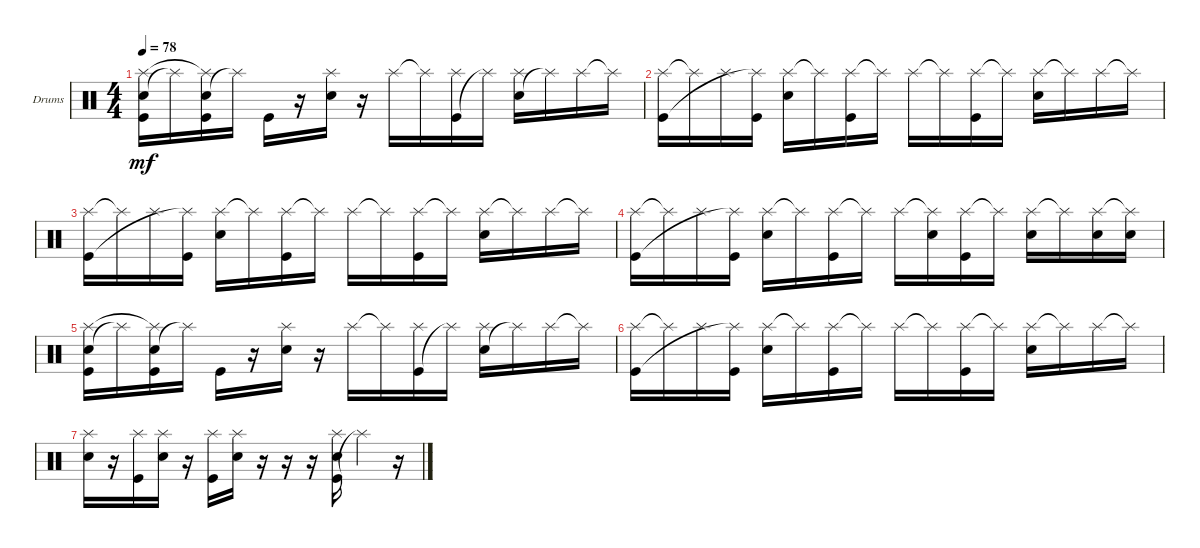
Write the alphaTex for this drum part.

\bracketExtendMode groupsimilarinstruments
\firstSystemTrackNameOrientation horizontal
\otherSystemsTrackNameOrientation horizontal
\track ("Drumkit" "Drums") {instrument percussion}
\staff {score}
\articulation defaults
\ts (4 4)
\tempo 78
\clef neutral
\ks c
("Snare (hit) 2" "Kick (hit)" "Splash (hit)").16{dy mf} "Splash (hit)"{t}.16 ("Snare (hit) 2" "Kick (hit)" "Splash (hit)"{t}).16 "Splash (hit)"{t}.16 "Kick (hit)".16 r.16 ("Snare (hit) 2" "Splash (hit)").16 r.16 "Splash (hit)".16 "Splash (hit)"{t}.16 ("Kick (hit)" "Splash (hit)").16 "Splash (hit)"{t}.16 ("Snare (hit) 2" "Splash (hit)").16 "Splash (hit)"{t}.16 "Splash (hit)".16 "Splash (hit)"{t}.16 |
("Splash (hit)" "Kick (hit)").16 "Splash (hit)"{t}.16 "Splash (hit)".16 ("Kick (hit)" "Splash (hit)"{t}).16 ("Splash (hit)" "Snare (hit) 2").16 "Splash (hit)"{t}.16 ("Splash (hit)" "Kick (hit)").16 "Splash (hit)"{t}.16 "Splash (hit)".16 "Splash (hit)"{t}.16 ("Splash (hit)" "Kick (hit)").16 "Splash (hit)"{t}.16 ("Splash (hit)" "Snare (hit) 2").16 "Splash (hit)"{t}.16 "Splash (hit)".16 "Splash (hit)"{t}.16 |
("Splash (hit)" "Kick (hit)").16 "Splash (hit)"{t}.16 "Splash (hit)".16 ("Kick (hit)" "Splash (hit)"{t}).16 ("Splash (hit)" "Snare (hit) 2").16 "Splash (hit)"{t}.16 ("Splash (hit)" "Kick (hit)").16 "Splash (hit)"{t}.16 "Splash (hit)".16 "Splash (hit)"{t}.16 ("Splash (hit)" "Kick (hit)").16 "Splash (hit)"{t}.16 ("Splash (hit)" "Snare (hit) 2").16 "Splash (hit)"{t}.16 "Splash (hit)".16 "Splash (hit)"{t}.16 |
("Splash (hit)" "Kick (hit)").16 "Splash (hit)"{t}.16 "Splash (hit)".16 ("Kick (hit)" "Splash (hit)"{t}).16 ("Splash (hit)" "Snare (hit) 2").16 "Splash (hit)"{t}.16 ("Splash (hit)" "Kick (hit)").16 "Splash (hit)"{t}.16 "Splash (hit)".16 ("Splash (hit)"{t} "Snare (hit) 2").16 ("Splash (hit)" "Kick (hit)").16 "Splash (hit)"{t}.16 ("Splash (hit)" "Snare (hit) 2").16 "Splash (hit)"{t}.16 ("Splash (hit)" "Snare (hit) 2").16 ("Splash (hit)"{t} "Snare (hit) 2").16 |
("Snare (hit) 2" "Kick (hit)" "Splash (hit)").16 "Splash (hit)"{t}.16 ("Snare (hit) 2" "Kick (hit)" "Splash (hit)"{t}).16 "Splash (hit)"{t}.16 "Kick (hit)".16 r.16 ("Snare (hit) 2" "Splash (hit)").16 r.16 "Splash (hit)".16 "Splash (hit)"{t}.16 ("Kick (hit)" "Splash (hit)").16 "Splash (hit)"{t}.16 ("Snare (hit) 2" "Splash (hit)").16 "Splash (hit)"{t}.16 "Splash (hit)".16 "Splash (hit)"{t}.16 |
("Splash (hit)" "Kick (hit)").16 "Splash (hit)"{t}.16 "Splash (hit)".16 ("Kick (hit)" "Splash (hit)"{t}).16 ("Splash (hit)" "Snare (hit) 2").16 "Splash (hit)"{t}.16 ("Splash (hit)" "Kick (hit)").16 "Splash (hit)"{t}.16 "Splash (hit)".16 "Splash (hit)"{t}.16 ("Splash (hit)" "Kick (hit)").16 "Splash (hit)"{t}.16 ("Splash (hit)" "Snare (hit) 2").16 "Splash (hit)"{t}.16 "Splash (hit)".16 "Splash (hit)"{t}.16 |
("Snare (hit) 2" "Splash (hit)").16 r.16 ("Kick (hit)" "Splash (hit)").16 ("Snare (hit) 2" "Splash (hit)").16 r.16 ("Kick (hit)" "Splash (hit)").16 ("Snare (hit) 2" "Splash (hit)").16 r.16 r.16 r.16 ("Kick (hit)" "Snare (hit) 2" "Splash (hit)").16 "Splash (hit)"{t}.4 r.16
